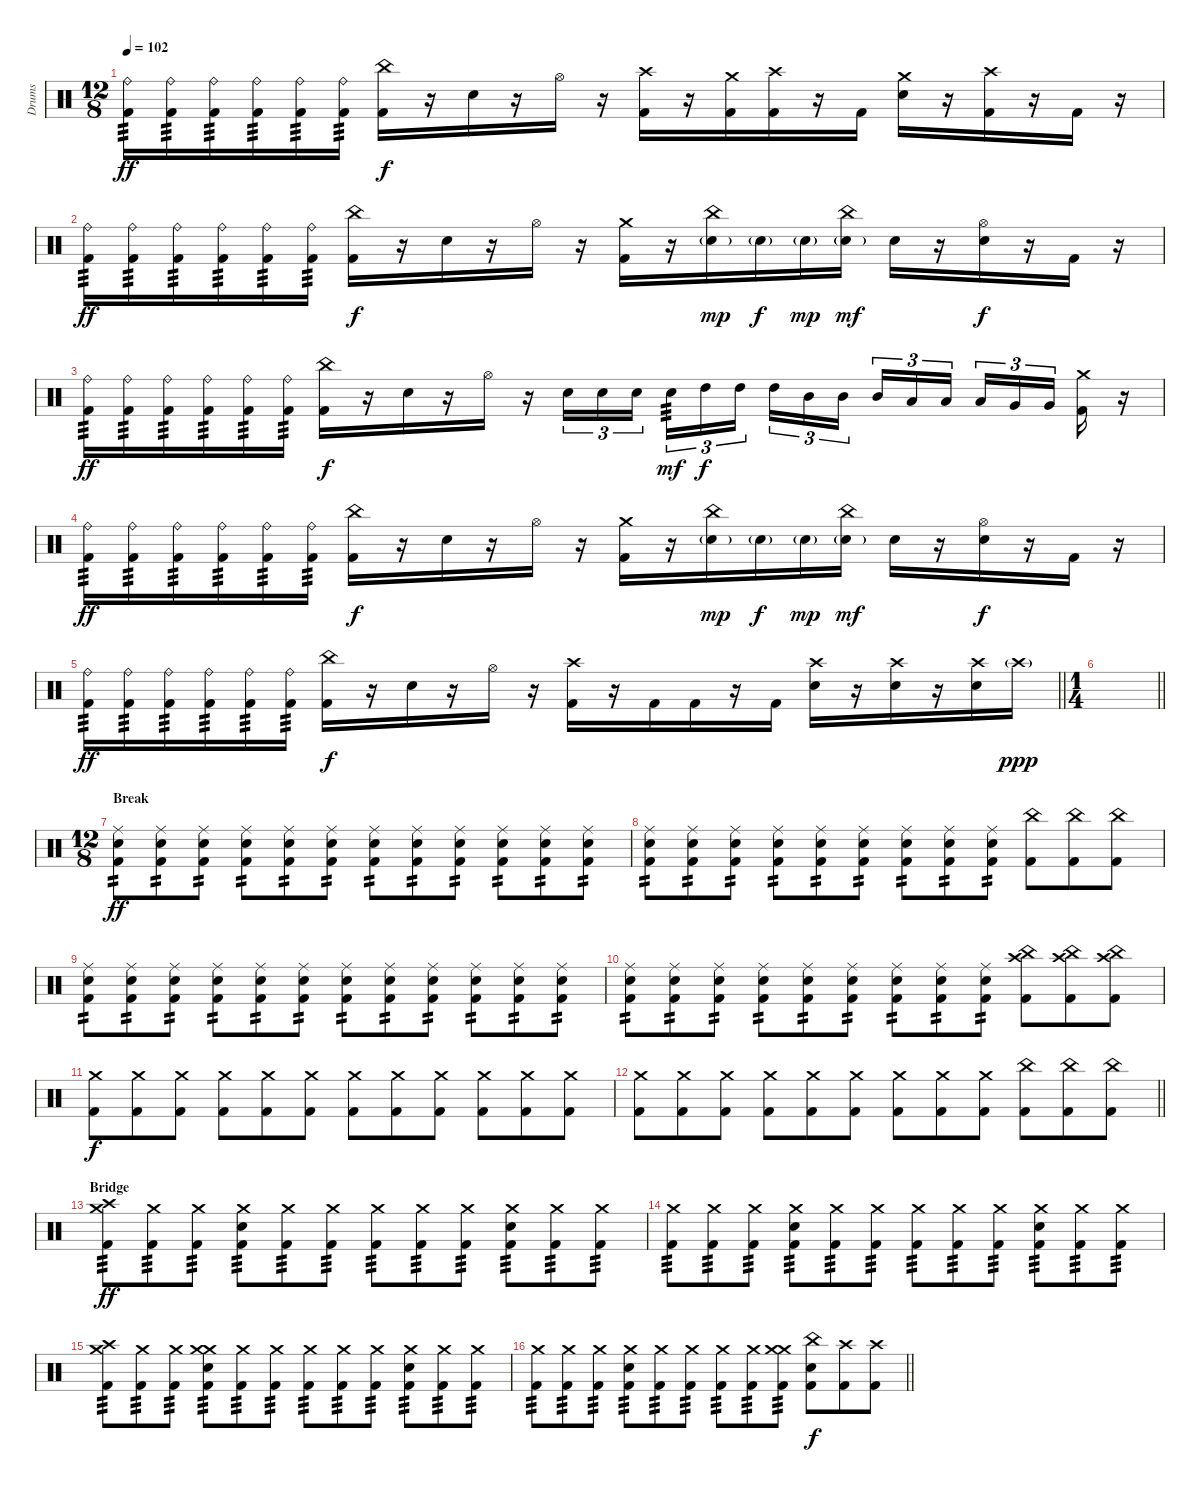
\track ("Drums" "Drums") {instrument percussion}
\staff {score}
\articulation defaults
\ts (12 8)
\tempo 102
\clef neutral
\ks c
("Ride (bell)" "Kick (hit) 2").16{tp 3 dy ff} ("Ride (bell)" "Kick (hit) 2").16{tp 3} ("Ride (bell)" "Kick (hit) 2").16{tp 3} ("Ride (bell)" "Kick (hit) 2").16{tp 3} ("Ride (bell)" "Kick (hit) 2").16{tp 3} ("Ride (bell)" "Kick (hit) 2").16{tp 3} ("China (hit)" "Kick (hit) 2").16{dy f} r.16 "Snare (hit) 2".16 r.16 "Hi-Hat (open)".16 r.16 ("Crash high (hit)" "Kick (hit) 2").16 r.16 ("Crash medium (hit)" "Kick (hit) 2").16 ("Crash high (hit)" "Kick (hit) 2").16 r.16 "Kick (hit) 2".16 ("Crash medium (hit)" "Snare (hit) 2").16 r.16 ("Crash high (hit)" "Kick (hit) 2").16 r.16 "Kick (hit) 2".16 r.16 |
("Ride (bell)" "Kick (hit) 2").16{tp 3 dy ff} ("Ride (bell)" "Kick (hit) 2").16{tp 3} ("Ride (bell)" "Kick (hit) 2").16{tp 3} ("Ride (bell)" "Kick (hit) 2").16{tp 3} ("Ride (bell)" "Kick (hit) 2").16{tp 3} ("Ride (bell)" "Kick (hit) 2").16{tp 3} ("China (hit)" "Kick (hit) 2").16{dy f} r.16 "Snare (hit) 2".16 r.16 "Hi-Hat (open)".16 r.16 ("Crash medium (hit)" "Kick (hit) 2").16 r.16 ("China (hit)" "Snare (hit) 2"{g}).16{dy mp} "Snare (hit) 2"{g}.16{dy f} "Snare (hit) 2"{g}.16{dy mp} ("China (hit)" "Snare (hit) 2"{g}).16{dy mf} "Snare (hit) 2".16 r.16 ("Hi-Hat (open)" "Snare (hit) 2").16{dy f} r.16 "Kick (hit) 2".16 r.16 |
("Ride (bell)" "Kick (hit) 2").16{tp 3 dy ff} ("Ride (bell)" "Kick (hit) 2").16{tp 3} ("Ride (bell)" "Kick (hit) 2").16{tp 3} ("Ride (bell)" "Kick (hit) 2").16{tp 3} ("Ride (bell)" "Kick (hit) 2").16{tp 3} ("Ride (bell)" "Kick (hit) 2").16{tp 3} ("China (hit)" "Kick (hit) 2").16{dy f} r.16 "Snare (hit) 2".16 r.16 "Hi-Hat (open)".16 r.16 "Snare (hit) 2".16{tu (3 2)} "Snare (hit) 2".16{tu (3 2)} "Snare (hit) 2".16{tu (3 2) beam splitsecondary} "Snare (hit) 2".16{tu (3 2) tp 3 dy mf} "High Tom (hit)".16{tu (3 2) dy f} "High Tom (hit)".16{tu (3 2) beam splitsecondary} "High Tom (hit)".16{tu (3 2)} "Mid Tom (hit)".16{tu (3 2)} "Mid Tom (hit)".16{tu (3 2)} "Mid Tom (hit)".16{tu (3 2)} "Low Tom (hit)".16{tu (3 2)} "Low Tom (hit)".16{tu (3 2) beam splitsecondary} "Low Tom (hit)".16{tu (3 2)} "Very Low Tom (hit)".16{tu (3 2)} "Very Low Tom (hit)".16{tu (3 2) beam splitsecondary} ("Crash medium (hit)" "Kick (hit) 2").16 r.16 |
("Ride (bell)" "Kick (hit) 2").16{tp 3 dy ff} ("Ride (bell)" "Kick (hit) 2").16{tp 3} ("Ride (bell)" "Kick (hit) 2").16{tp 3} ("Ride (bell)" "Kick (hit) 2").16{tp 3} ("Ride (bell)" "Kick (hit) 2").16{tp 3} ("Ride (bell)" "Kick (hit) 2").16{tp 3} ("China (hit)" "Kick (hit) 2").16{dy f} r.16 "Snare (hit) 2".16 r.16 "Hi-Hat (open)".16 r.16 ("Crash medium (hit)" "Kick (hit) 2").16 r.16 ("China (hit)" "Snare (hit) 2"{g}).16{dy mp} "Snare (hit) 2"{g}.16{dy f} "Snare (hit) 2"{g}.16{dy mp} ("China (hit)" "Snare (hit) 2"{g}).16{dy mf} "Snare (hit) 2".16 r.16 ("Hi-Hat (open)" "Snare (hit) 2").16{dy f} r.16 "Kick (hit) 2".16 r.16 |
\barLineRight lightlight
("Ride (bell)" "Kick (hit) 2").16{tp 3 dy ff} ("Ride (bell)" "Kick (hit) 2").16{tp 3} ("Ride (bell)" "Kick (hit) 2").16{tp 3} ("Ride (bell)" "Kick (hit) 2").16{tp 3} ("Ride (bell)" "Kick (hit) 2").16{tp 3} ("Ride (bell)" "Kick (hit) 2").16{tp 3} ("China (hit)" "Kick (hit) 2").16{dy f} r.16 "Snare (hit) 2".16 r.16 "Hi-Hat (open)".16 r.16 ("Crash high (hit)" "Kick (hit) 2").16 r.16 "Kick (hit) 2".16 "Kick (hit) 2".16 r.16 "Kick (hit) 2".16 ("Crash high (hit)" "Snare (hit) 2").16 r.16 ("Crash high (hit)" "Snare (hit) 2").16 r.16 ("Crash high (hit)" "Snare (hit) 2").16 "Crash high (hit)"{g}.16{dy ppp} |
\ts (1 4)
\barLineRight lightlight
|
\ts (12 8)
\section ("" "Break")
("Ride (middle)" "Snare (hit) 2" "Kick (hit) 2").8{tp 2 dy ff} ("Ride (middle)" "Snare (hit) 2" "Kick (hit) 2").8{tp 2} ("Ride (middle)" "Snare (hit) 2" "Kick (hit) 2").8{tp 2} ("Ride (middle)" "Snare (hit) 2" "Kick (hit) 2").8{tp 2} ("Ride (middle)" "Snare (hit) 2" "Kick (hit) 2").8{tp 2} ("Ride (middle)" "Snare (hit) 2" "Kick (hit) 2").8{tp 2} ("Ride (middle)" "Snare (hit) 2" "Kick (hit) 2").8{tp 2} ("Ride (middle)" "Snare (hit) 2" "Kick (hit) 2").8{tp 2} ("Ride (middle)" "Snare (hit) 2" "Kick (hit) 2").8{tp 2} ("Ride (middle)" "Snare (hit) 2" "Kick (hit) 2").8{tp 2} ("Ride (middle)" "Snare (hit) 2" "Kick (hit) 2").8{tp 2} ("Ride (middle)" "Snare (hit) 2" "Kick (hit) 2").8{tp 2} |
("Ride (middle)" "Snare (hit) 2" "Kick (hit) 2").8{tp 2} ("Ride (middle)" "Snare (hit) 2" "Kick (hit) 2").8{tp 2} ("Ride (middle)" "Snare (hit) 2" "Kick (hit) 2").8{tp 2} ("Ride (middle)" "Snare (hit) 2" "Kick (hit) 2").8{tp 2} ("Ride (middle)" "Snare (hit) 2" "Kick (hit) 2").8{tp 2} ("Ride (middle)" "Snare (hit) 2" "Kick (hit) 2").8{tp 2} ("Ride (middle)" "Snare (hit) 2" "Kick (hit) 2").8{tp 2} ("Ride (middle)" "Snare (hit) 2" "Kick (hit) 2").8{tp 2} ("Ride (middle)" "Snare (hit) 2" "Kick (hit) 2").8{tp 2} ("China (hit)" "Kick (hit) 2").8 ("China (hit)" "Kick (hit) 2").8 ("China (hit)" "Kick (hit) 2").8 |
("Ride (middle)" "Snare (hit) 2" "Kick (hit) 2").8{tp 2} ("Ride (middle)" "Snare (hit) 2" "Kick (hit) 2").8{tp 2} ("Ride (middle)" "Snare (hit) 2" "Kick (hit) 2").8{tp 2} ("Ride (middle)" "Snare (hit) 2" "Kick (hit) 2").8{tp 2} ("Ride (middle)" "Snare (hit) 2" "Kick (hit) 2").8{tp 2} ("Ride (middle)" "Snare (hit) 2" "Kick (hit) 2").8{tp 2} ("Ride (middle)" "Snare (hit) 2" "Kick (hit) 2").8{tp 2} ("Ride (middle)" "Snare (hit) 2" "Kick (hit) 2").8{tp 2} ("Ride (middle)" "Snare (hit) 2" "Kick (hit) 2").8{tp 2} ("Ride (middle)" "Snare (hit) 2" "Kick (hit) 2").8{tp 2} ("Ride (middle)" "Snare (hit) 2" "Kick (hit) 2").8{tp 2} ("Ride (middle)" "Snare (hit) 2" "Kick (hit) 2").8{tp 2} |
("Ride (middle)" "Snare (hit) 2" "Kick (hit) 2").8{tp 2} ("Ride (middle)" "Snare (hit) 2" "Kick (hit) 2").8{tp 2} ("Ride (middle)" "Snare (hit) 2" "Kick (hit) 2").8{tp 2} ("Ride (middle)" "Snare (hit) 2" "Kick (hit) 2").8{tp 2} ("Ride (middle)" "Snare (hit) 2" "Kick (hit) 2").8{tp 2} ("Ride (middle)" "Snare (hit) 2" "Kick (hit) 2").8{tp 2} ("Ride (middle)" "Snare (hit) 2" "Kick (hit) 2").8{tp 2} ("Ride (middle)" "Snare (hit) 2" "Kick (hit) 2").8{tp 2} ("Ride (middle)" "Snare (hit) 2" "Kick (hit) 2").8{tp 2} ("China (hit)" "Crash high (hit)" "Kick (hit) 2").8 ("China (hit)" "Crash high (hit)" "Kick (hit) 2").8 ("China (hit)" "Crash high (hit)" "Kick (hit) 2").8 |
("Crash medium (hit)" "Kick (hit) 2").8{dy f} ("Crash medium (hit)" "Kick (hit) 2").8 ("Crash medium (hit)" "Kick (hit) 2").8 ("Crash medium (hit)" "Kick (hit) 2").8 ("Crash medium (hit)" "Kick (hit) 2").8 ("Crash medium (hit)" "Kick (hit) 2").8 ("Crash medium (hit)" "Kick (hit) 2").8 ("Crash medium (hit)" "Kick (hit) 2").8 ("Crash medium (hit)" "Kick (hit) 2").8 ("Crash medium (hit)" "Kick (hit) 2").8 ("Crash medium (hit)" "Kick (hit) 2").8 ("Crash medium (hit)" "Kick (hit) 2").8 |
\barLineRight lightlight
("Crash medium (hit)" "Kick (hit) 2").8 ("Crash medium (hit)" "Kick (hit) 2").8 ("Crash medium (hit)" "Kick (hit) 2").8 ("Crash medium (hit)" "Kick (hit) 2").8 ("Crash medium (hit)" "Kick (hit) 2").8 ("Crash medium (hit)" "Kick (hit) 2").8 ("Crash medium (hit)" "Kick (hit) 2").8 ("Crash medium (hit)" "Kick (hit) 2").8 ("Crash medium (hit)" "Kick (hit) 2").8 ("China (hit)" "Kick (hit) 2").8 ("China (hit)" "Kick (hit) 2").8 ("China (hit)" "Kick (hit) 2").8 |
\section ("" "Bridge")
("Crash medium (hit)" "Crash high (hit)" "Kick (hit) 2").8{tp 3 dy ff} ("Crash medium (hit)" "Kick (hit) 2").8{tp 3} ("Crash medium (hit)" "Kick (hit) 2").8{tp 3} ("Crash medium (hit)" "Snare (hit) 2" "Kick (hit) 2").8{tp 3} ("Crash medium (hit)" "Kick (hit) 2").8{tp 3} ("Crash medium (hit)" "Kick (hit) 2").8{tp 3} ("Crash medium (hit)" "Kick (hit) 2").8{tp 3} ("Crash medium (hit)" "Kick (hit) 2").8{tp 3} ("Crash medium (hit)" "Kick (hit) 2").8{tp 3} ("Crash medium (hit)" "Snare (hit) 2" "Kick (hit) 2").8{tp 3} ("Crash medium (hit)" "Kick (hit) 2").8{tp 3} ("Crash medium (hit)" "Kick (hit) 2").8{tp 3} |
("Crash medium (hit)" "Kick (hit) 2").8{tp 3} ("Crash medium (hit)" "Kick (hit) 2").8{tp 3} ("Crash medium (hit)" "Kick (hit) 2").8{tp 3} ("Crash medium (hit)" "Snare (hit) 2" "Kick (hit) 2").8{tp 3} ("Crash medium (hit)" "Kick (hit) 2").8{tp 3} ("Crash medium (hit)" "Kick (hit) 2").8{tp 3} ("Crash medium (hit)" "Kick (hit) 2").8{tp 3} ("Crash medium (hit)" "Kick (hit) 2").8{tp 3} ("Crash medium (hit)" "Kick (hit) 2").8{tp 3} ("Crash medium (hit)" "Snare (hit) 2" "Kick (hit) 2").8{tp 3} ("Crash medium (hit)" "Kick (hit) 2").8{tp 3} ("Crash medium (hit)" "Kick (hit) 2").8{tp 3} |
("Crash medium (hit)" "Crash high (hit)" "Kick (hit) 2").8{tp 3} ("Crash medium (hit)" "Kick (hit) 2").8{tp 3} ("Crash medium (hit)" "Kick (hit) 2").8{tp 3} ("Crash medium (hit)" "Crash medium (hit)" "Snare (hit) 2" "Kick (hit) 2").8{tp 3} ("Crash medium (hit)" "Kick (hit) 2").8{tp 3} ("Crash medium (hit)" "Kick (hit) 2").8{tp 3} ("Crash medium (hit)" "Kick (hit) 2").8{tp 3} ("Crash medium (hit)" "Kick (hit) 2").8{tp 3} ("Crash medium (hit)" "Kick (hit) 2").8{tp 3} ("Crash medium (hit)" "Snare (hit) 2" "Kick (hit) 2").8{tp 3} ("Crash medium (hit)" "Kick (hit) 2").8{tp 3} ("Crash medium (hit)" "Kick (hit) 2").8{tp 3} |
\barLineRight lightlight
("Crash medium (hit)" "Kick (hit) 2").8{tp 3} ("Crash medium (hit)" "Kick (hit) 2").8{tp 3} ("Crash medium (hit)" "Kick (hit) 2").8{tp 3} ("Crash medium (hit)" "Snare (hit) 2" "Kick (hit) 2").8{tp 3} ("Crash medium (hit)" "Kick (hit) 2").8{tp 3} ("Crash medium (hit)" "Kick (hit) 2").8{tp 3} ("Crash medium (hit)" "Kick (hit) 2").8{tp 3} ("Crash medium (hit)" "Kick (hit) 2").8{tp 3} ("Crash medium (hit)" "Crash medium (hit)" "Kick (hit) 2").8{tp 3} ("China (hit)" "Snare (hit) 2" "Kick (hit) 2").8{dy f} ("Crash high (hit)" "Kick (hit) 2").8 ("Crash high (hit)" "Kick (hit) 2").8
